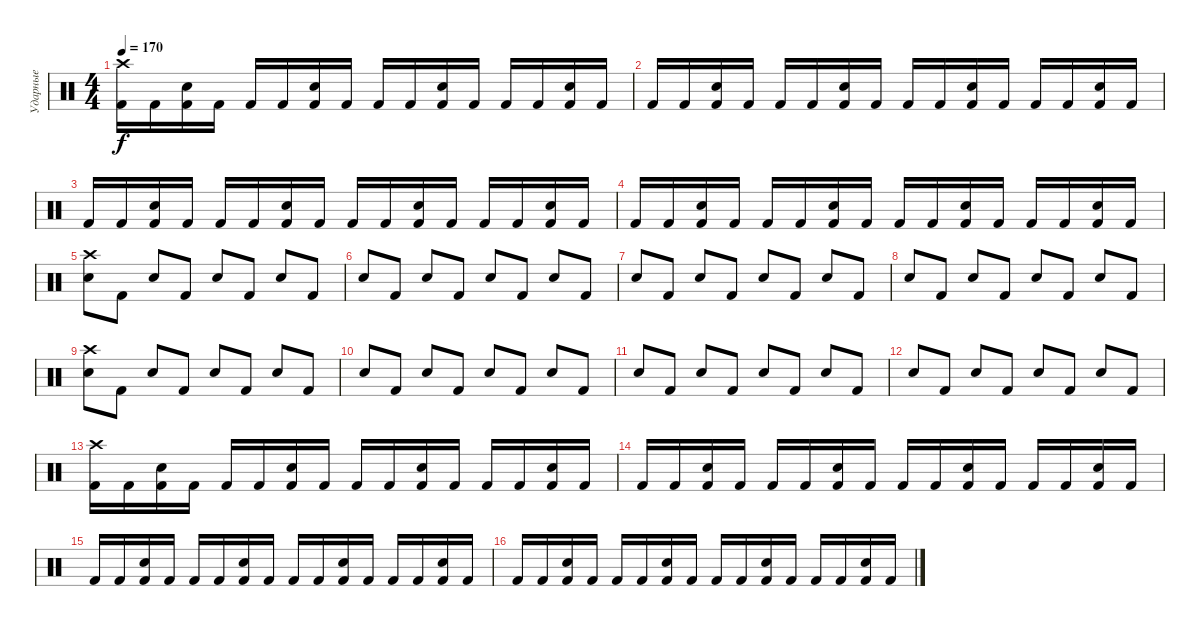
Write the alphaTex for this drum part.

\track ("Ударные" "Ударные") {instrument percussion}
\staff {score}
\articulation defaults
\ts (4 4)
\tempo 170
\clef neutral
\ks c
("Kick (hit) 2" "Crash high (hit)").16{dy f} "Kick (hit) 2".16 ("Kick (hit) 2" "Electric Snare (hit)").16 "Kick (hit) 2".16 "Kick (hit) 2".16 "Kick (hit) 2".16 ("Kick (hit) 2" "Electric Snare (hit)").16 "Kick (hit) 2".16 "Kick (hit) 2".16 "Kick (hit) 2".16 ("Kick (hit) 2" "Electric Snare (hit)").16 "Kick (hit) 2".16 "Kick (hit) 2".16 "Kick (hit) 2".16 ("Kick (hit) 2" "Electric Snare (hit)").16 "Kick (hit) 2".16 |
"Kick (hit) 2".16 "Kick (hit) 2".16 ("Kick (hit) 2" "Electric Snare (hit)").16 "Kick (hit) 2".16 "Kick (hit) 2".16 "Kick (hit) 2".16 ("Kick (hit) 2" "Electric Snare (hit)").16 "Kick (hit) 2".16 "Kick (hit) 2".16 "Kick (hit) 2".16 ("Kick (hit) 2" "Electric Snare (hit)").16 "Kick (hit) 2".16 "Kick (hit) 2".16 "Kick (hit) 2".16 ("Kick (hit) 2" "Electric Snare (hit)").16 "Kick (hit) 2".16 |
"Kick (hit) 2".16 "Kick (hit) 2".16 ("Kick (hit) 2" "Electric Snare (hit)").16 "Kick (hit) 2".16 "Kick (hit) 2".16 "Kick (hit) 2".16 ("Kick (hit) 2" "Electric Snare (hit)").16 "Kick (hit) 2".16 "Kick (hit) 2".16 "Kick (hit) 2".16 ("Kick (hit) 2" "Electric Snare (hit)").16 "Kick (hit) 2".16 "Kick (hit) 2".16 "Kick (hit) 2".16 ("Kick (hit) 2" "Electric Snare (hit)").16 "Kick (hit) 2".16 |
"Kick (hit) 2".16 "Kick (hit) 2".16 ("Kick (hit) 2" "Electric Snare (hit)").16 "Kick (hit) 2".16 "Kick (hit) 2".16 "Kick (hit) 2".16 ("Kick (hit) 2" "Electric Snare (hit)").16 "Kick (hit) 2".16 "Kick (hit) 2".16 "Kick (hit) 2".16 ("Kick (hit) 2" "Electric Snare (hit)").16 "Kick (hit) 2".16 "Kick (hit) 2".16 "Kick (hit) 2".16 ("Kick (hit) 2" "Electric Snare (hit)").16 "Kick (hit) 2".16 |
("Crash high (hit)" "Electric Snare (hit)").8 "Kick (hit) 2".8 "Electric Snare (hit)".8 "Kick (hit) 2".8 "Electric Snare (hit)".8 "Kick (hit) 2".8 "Electric Snare (hit)".8 "Kick (hit) 2".8 |
"Electric Snare (hit)".8 "Kick (hit) 2".8 "Electric Snare (hit)".8 "Kick (hit) 2".8 "Electric Snare (hit)".8 "Kick (hit) 2".8 "Electric Snare (hit)".8 "Kick (hit) 2".8 |
"Electric Snare (hit)".8 "Kick (hit) 2".8 "Electric Snare (hit)".8 "Kick (hit) 2".8 "Electric Snare (hit)".8 "Kick (hit) 2".8 "Electric Snare (hit)".8 "Kick (hit) 2".8 |
"Electric Snare (hit)".8 "Kick (hit) 2".8 "Electric Snare (hit)".8 "Kick (hit) 2".8 "Electric Snare (hit)".8 "Kick (hit) 2".8 "Electric Snare (hit)".8 "Kick (hit) 2".8 |
("Crash high (hit)" "Electric Snare (hit)").8 "Kick (hit) 2".8 "Electric Snare (hit)".8 "Kick (hit) 2".8 "Electric Snare (hit)".8 "Kick (hit) 2".8 "Electric Snare (hit)".8 "Kick (hit) 2".8 |
"Electric Snare (hit)".8 "Kick (hit) 2".8 "Electric Snare (hit)".8 "Kick (hit) 2".8 "Electric Snare (hit)".8 "Kick (hit) 2".8 "Electric Snare (hit)".8 "Kick (hit) 2".8 |
"Electric Snare (hit)".8 "Kick (hit) 2".8 "Electric Snare (hit)".8 "Kick (hit) 2".8 "Electric Snare (hit)".8 "Kick (hit) 2".8 "Electric Snare (hit)".8 "Kick (hit) 2".8 |
"Electric Snare (hit)".8 "Kick (hit) 2".8 "Electric Snare (hit)".8 "Kick (hit) 2".8 "Electric Snare (hit)".8 "Kick (hit) 2".8 "Electric Snare (hit)".8 "Kick (hit) 2".8 |
("Kick (hit) 2" "Crash high (hit)").16 "Kick (hit) 2".16 ("Kick (hit) 2" "Electric Snare (hit)").16 "Kick (hit) 2".16 "Kick (hit) 2".16 "Kick (hit) 2".16 ("Kick (hit) 2" "Electric Snare (hit)").16 "Kick (hit) 2".16 "Kick (hit) 2".16 "Kick (hit) 2".16 ("Kick (hit) 2" "Electric Snare (hit)").16 "Kick (hit) 2".16 "Kick (hit) 2".16 "Kick (hit) 2".16 ("Kick (hit) 2" "Electric Snare (hit)").16 "Kick (hit) 2".16 |
"Kick (hit) 2".16 "Kick (hit) 2".16 ("Kick (hit) 2" "Electric Snare (hit)").16 "Kick (hit) 2".16 "Kick (hit) 2".16 "Kick (hit) 2".16 ("Kick (hit) 2" "Electric Snare (hit)").16 "Kick (hit) 2".16 "Kick (hit) 2".16 "Kick (hit) 2".16 ("Kick (hit) 2" "Electric Snare (hit)").16 "Kick (hit) 2".16 "Kick (hit) 2".16 "Kick (hit) 2".16 ("Kick (hit) 2" "Electric Snare (hit)").16 "Kick (hit) 2".16 |
"Kick (hit) 2".16 "Kick (hit) 2".16 ("Kick (hit) 2" "Electric Snare (hit)").16 "Kick (hit) 2".16 "Kick (hit) 2".16 "Kick (hit) 2".16 ("Kick (hit) 2" "Electric Snare (hit)").16 "Kick (hit) 2".16 "Kick (hit) 2".16 "Kick (hit) 2".16 ("Kick (hit) 2" "Electric Snare (hit)").16 "Kick (hit) 2".16 "Kick (hit) 2".16 "Kick (hit) 2".16 ("Kick (hit) 2" "Electric Snare (hit)").16 "Kick (hit) 2".16 |
"Kick (hit) 2".16 "Kick (hit) 2".16 ("Kick (hit) 2" "Electric Snare (hit)").16 "Kick (hit) 2".16 "Kick (hit) 2".16 "Kick (hit) 2".16 ("Kick (hit) 2" "Electric Snare (hit)").16 "Kick (hit) 2".16 "Kick (hit) 2".16 "Kick (hit) 2".16 ("Kick (hit) 2" "Electric Snare (hit)").16 "Kick (hit) 2".16 "Kick (hit) 2".16 "Kick (hit) 2".16 ("Kick (hit) 2" "Electric Snare (hit)").16 "Kick (hit) 2".16
